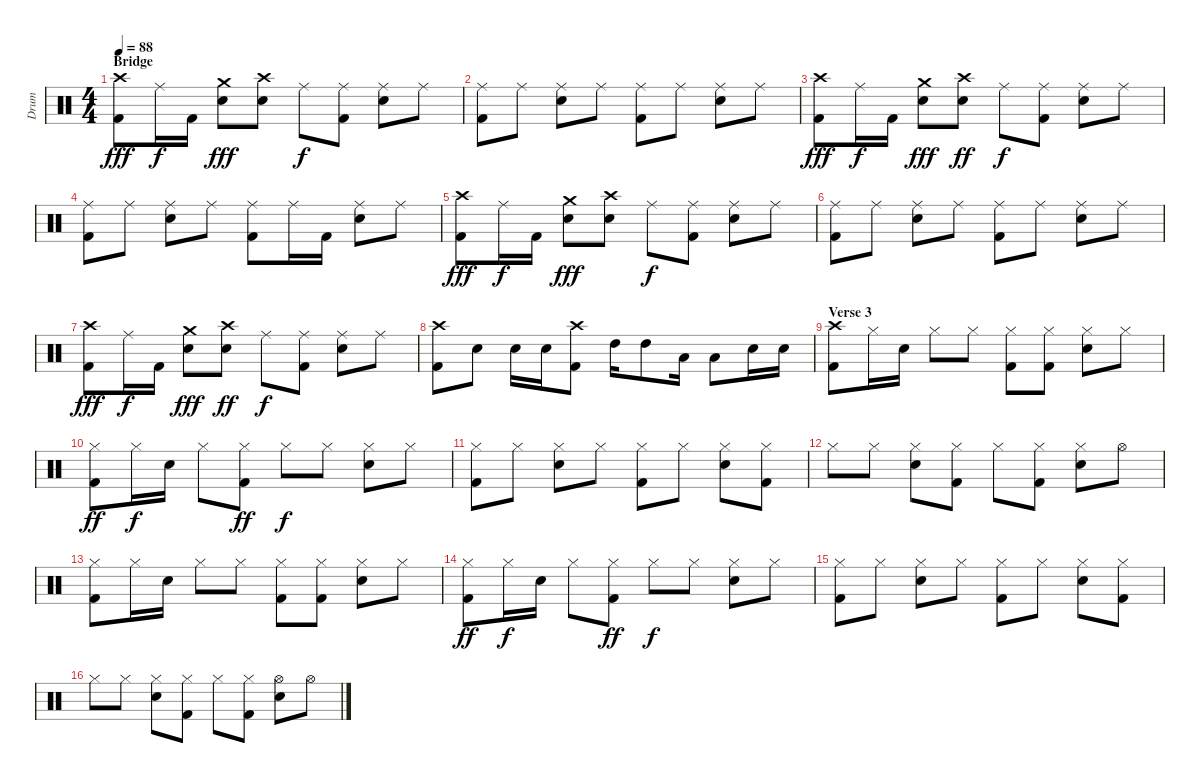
\track ("Drum" "Drum") {instrument percussion}
\staff {score}
\articulation defaults
\ts (4 4)
\section ("" "Bridge")
\tempo 88
\clef neutral
\ks c
("Crash high (hit)" "Kick (hit) 2").8{dy fff} "Ride (middle)".16{dy f} "Kick (hit) 2".16 ("Crash medium (hit)" "Electric Snare (hit)").8{dy fff} ("Crash high (hit)" "Electric Snare (hit)").8 "Ride (middle)".8{dy f} ("Ride (middle)" "Kick (hit) 2").8 ("Ride (middle)" "Electric Snare (hit)").8 "Ride (middle)".8 |
("Ride (middle)" "Kick (hit) 2").8 "Ride (middle)".8 ("Ride (middle)" "Electric Snare (hit)").8 "Ride (middle)".8 ("Ride (middle)" "Kick (hit) 2").8 "Ride (middle)".8 ("Ride (middle)" "Electric Snare (hit)").8 "Ride (middle)".8 |
("Crash high (hit)" "Kick (hit) 2").8{dy fff} "Ride (middle)".16{dy f} "Kick (hit) 2".16 ("Crash medium (hit)" "Electric Snare (hit)").8{dy fff} ("Crash high (hit)" "Electric Snare (hit)").8{dy ff} "Ride (middle)".8{dy f} ("Ride (middle)" "Kick (hit) 2").8 ("Ride (middle)" "Electric Snare (hit)").8 "Ride (middle)".8 |
("Ride (middle)" "Kick (hit) 2").8 "Ride (middle)".8 ("Ride (middle)" "Electric Snare (hit)").8 "Ride (middle)".8 ("Ride (middle)" "Kick (hit) 2").8 "Ride (middle)".16 "Kick (hit) 2".16 ("Ride (middle)" "Electric Snare (hit)").8 "Ride (middle)".8 |
("Crash high (hit)" "Kick (hit) 2").8{dy fff} "Ride (middle)".16{dy f} "Kick (hit) 2".16 ("Crash medium (hit)" "Electric Snare (hit)").8{dy fff} ("Crash high (hit)" "Electric Snare (hit)").8 "Ride (middle)".8{dy f} ("Ride (middle)" "Kick (hit) 2").8 ("Ride (middle)" "Electric Snare (hit)").8 "Ride (middle)".8 |
("Ride (middle)" "Kick (hit) 2").8 "Ride (middle)".8 ("Ride (middle)" "Electric Snare (hit)").8 "Ride (middle)".8 ("Ride (middle)" "Kick (hit) 2").8 "Ride (middle)".8 ("Ride (middle)" "Electric Snare (hit)").8 "Ride (middle)".8 |
("Crash high (hit)" "Kick (hit) 2").8{dy fff} "Ride (middle)".16{dy f} "Kick (hit) 2".16 ("Crash medium (hit)" "Electric Snare (hit)").8{dy fff} ("Crash high (hit)" "Electric Snare (hit)").8{dy ff} "Ride (middle)".8{dy f} ("Ride (middle)" "Kick (hit) 2").8 ("Ride (middle)" "Electric Snare (hit)").8 "Ride (middle)".8 |
("Crash high (hit)" "Kick (hit) 2").8 "Electric Snare (hit)".8 "Electric Snare (hit)".16 "Electric Snare (hit)".16 ("Crash high (hit)" "Kick (hit) 2").8 "High Tom (hit)".16 "High Tom (hit)".8 "Low Tom (hit)".16 "Low Tom (hit)".8 "Electric Snare (hit)".16 "Electric Snare (hit)".16 |
\section ("" "Verse 3")
("Crash high (hit)" "Kick (hit) 2").8 "Hi-Hat (closed)".16 "Electric Snare (hit)".16 "Hi-Hat (closed)".8 "Hi-Hat (closed)".8 ("Hi-Hat (closed)" "Kick (hit) 2").8 ("Hi-Hat (closed)" "Kick (hit) 2").8 ("Hi-Hat (closed)" "Electric Snare (hit)").8 "Hi-Hat (closed)".8 |
("Hi-Hat (closed)" "Kick (hit) 2").8{dy ff} "Hi-Hat (closed)".16{dy f} "Electric Snare (hit)".16 "Hi-Hat (closed)".8 ("Hi-Hat (closed)" "Kick (hit) 2").8{dy ff} "Hi-Hat (closed)".8{dy f} "Hi-Hat (closed)".8 ("Hi-Hat (closed)" "Electric Snare (hit)").8 "Hi-Hat (closed)".8 |
("Hi-Hat (closed)" "Kick (hit) 2").8 "Hi-Hat (closed)".8 ("Hi-Hat (closed)" "Electric Snare (hit)").8 "Hi-Hat (closed)".8 ("Hi-Hat (closed)" "Kick (hit) 2").8 "Hi-Hat (closed)".8 ("Hi-Hat (closed)" "Electric Snare (hit)").8 ("Hi-Hat (closed)" "Kick (hit) 2").8 |
"Hi-Hat (closed)".8 "Hi-Hat (closed)".8 ("Hi-Hat (closed)" "Electric Snare (hit)").8 ("Hi-Hat (closed)" "Kick (hit) 2").8 "Hi-Hat (closed)".8 ("Hi-Hat (closed)" "Kick (hit) 2").8 ("Hi-Hat (closed)" "Electric Snare (hit)").8 "Hi-Hat (open)".8 |
("Hi-Hat (closed)" "Kick (hit) 2").8 "Hi-Hat (closed)".16 "Electric Snare (hit)".16 "Hi-Hat (closed)".8 "Hi-Hat (closed)".8 ("Hi-Hat (closed)" "Kick (hit) 2").8 ("Hi-Hat (closed)" "Kick (hit) 2").8 ("Hi-Hat (closed)" "Electric Snare (hit)").8 "Hi-Hat (closed)".8 |
("Hi-Hat (closed)" "Kick (hit) 2").8{dy ff} "Hi-Hat (closed)".16{dy f} "Electric Snare (hit)".16 "Hi-Hat (closed)".8 ("Hi-Hat (closed)" "Kick (hit) 2").8{dy ff} "Hi-Hat (closed)".8{dy f} "Hi-Hat (closed)".8 ("Hi-Hat (closed)" "Electric Snare (hit)").8 "Hi-Hat (closed)".8 |
("Hi-Hat (closed)" "Kick (hit) 2").8 "Hi-Hat (closed)".8 ("Hi-Hat (closed)" "Electric Snare (hit)").8 "Hi-Hat (closed)".8 ("Hi-Hat (closed)" "Kick (hit) 2").8 "Hi-Hat (closed)".8 ("Hi-Hat (closed)" "Electric Snare (hit)").8 ("Hi-Hat (closed)" "Kick (hit) 2").8 |
"Hi-Hat (closed)".8 "Hi-Hat (closed)".8 ("Hi-Hat (closed)" "Electric Snare (hit)").8 ("Hi-Hat (closed)" "Kick (hit) 2").8 "Hi-Hat (closed)".8 ("Hi-Hat (closed)" "Kick (hit) 2").8 ("Hi-Hat (open)" "Electric Snare (hit)").8 "Hi-Hat (open)".8
